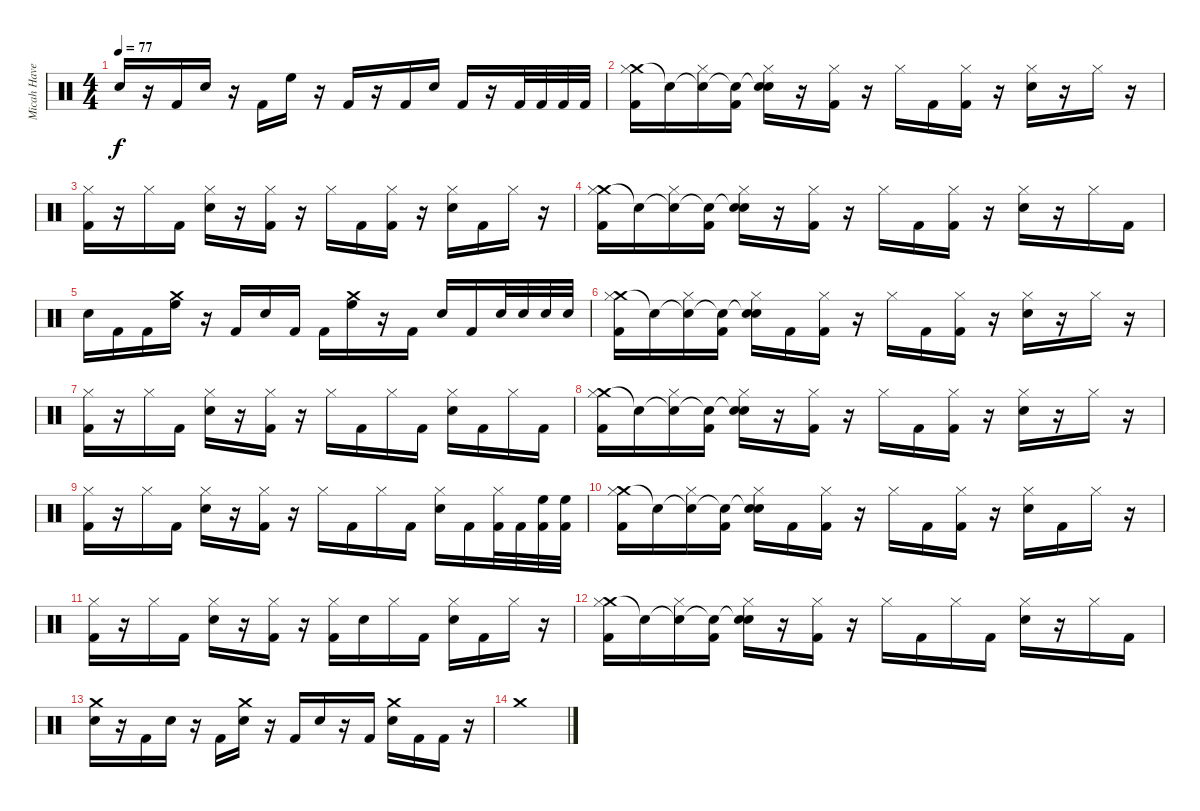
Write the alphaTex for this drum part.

\track ("Micah Havertape" "Micah Have") {instrument percussion}
\staff {score}
\articulation defaults
\ts (4 4)
\tempo 77
\clef neutral
\ks c "Electric Snare (hit)".16{dy f}
r.16 "Kick (hit) 2".16 "Electric Snare (hit)".16 r.16 "Kick (hit) 2".16 "High Floor Tom (hit)".16 r.16 "Kick (hit) 2".16 r.16 "Kick (hit) 2".16 "Electric Snare (hit)".16 "Kick (hit) 2".16 r.16 "Kick (hit) 2".32 "Kick (hit) 2".32 "Kick (hit) 2".32 "Kick (hit) 2".32 |
("Crash medium (hit)" "Hi-Hat (closed)" "Kick (hit) 2").16 "Snare (hit)"{t}.16 ("Snare (hit)"{t} "Hi-Hat (closed)").16 ("Snare (hit)"{t} "Kick (hit) 2").16 ("Snare (hit)"{t} "Hi-Hat (closed)" "Electric Snare (hit)").16 r.16 ("Hi-Hat (closed)" "Kick (hit) 2").16 r.16 "Hi-Hat (closed)".16 "Kick (hit) 2".16 ("Hi-Hat (closed)" "Kick (hit) 2").16 r.16 ("Hi-Hat (closed)" "Electric Snare (hit)").16 r.16 "Hi-Hat (closed)".16 r.16 |
("Hi-Hat (closed)" "Kick (hit) 2").16 r.16 "Hi-Hat (closed)".16 "Kick (hit) 2".16 ("Hi-Hat (closed)" "Electric Snare (hit)").16 r.16 ("Hi-Hat (closed)" "Kick (hit) 2").16 r.16 "Hi-Hat (closed)".16 "Kick (hit) 2".16 ("Hi-Hat (closed)" "Kick (hit) 2").16 r.16 ("Hi-Hat (closed)" "Electric Snare (hit)").16 "Kick (hit) 2".16 "Hi-Hat (closed)".16 r.16 |
("Crash medium (hit)" "Hi-Hat (closed)" "Kick (hit) 2").16 "Snare (hit)"{t}.16 ("Snare (hit)"{t} "Hi-Hat (closed)").16 ("Snare (hit)"{t} "Kick (hit) 2").16 ("Snare (hit)"{t} "Hi-Hat (closed)" "Electric Snare (hit)").16 r.16 ("Hi-Hat (closed)" "Kick (hit) 2").16 r.16 "Hi-Hat (closed)".16 "Kick (hit) 2".16 ("Hi-Hat (closed)" "Kick (hit) 2").16 r.16 ("Hi-Hat (closed)" "Electric Snare (hit)").16 r.16 "Hi-Hat (closed)".16 "Kick (hit) 2".16 |
"Electric Snare (hit)".16 "Kick (hit) 2".16 "Kick (hit) 2".16 ("Crash medium (hit)" "High Floor Tom (hit)").16 r.16 "Kick (hit) 2".16 "Electric Snare (hit)".16 "Kick (hit) 2".16 "Kick (hit) 2".16 ("Crash medium (hit)" "High Floor Tom (hit)").16 r.16 "Kick (hit) 2".16 "Electric Snare (hit)".16 "Kick (hit) 2".16 "Electric Snare (hit)".32 "Electric Snare (hit)".32 "Electric Snare (hit)".32 "Electric Snare (hit)".32 |
("Crash medium (hit)" "Hi-Hat (closed)" "Kick (hit) 2").16 "Snare (hit)"{t}.16 ("Snare (hit)"{t} "Hi-Hat (closed)").16 ("Snare (hit)"{t} "Kick (hit) 2").16 ("Snare (hit)"{t} "Hi-Hat (closed)" "Electric Snare (hit)").16 "Kick (hit) 2".16 ("Hi-Hat (closed)" "Kick (hit) 2").16 r.16 "Hi-Hat (closed)".16 "Kick (hit) 2".16 ("Hi-Hat (closed)" "Kick (hit) 2").16 r.16 ("Hi-Hat (closed)" "Electric Snare (hit)").16 r.16 "Hi-Hat (closed)".16 r.16 |
("Hi-Hat (closed)" "Kick (hit) 2").16 r.16 "Hi-Hat (closed)".16 "Kick (hit) 2".16 ("Hi-Hat (closed)" "Electric Snare (hit)").16 r.16 ("Hi-Hat (closed)" "Kick (hit) 2").16 r.16 "Hi-Hat (closed)".16 "Kick (hit) 2".16 "Hi-Hat (closed)".16 "Kick (hit) 2".16 ("Hi-Hat (closed)" "Electric Snare (hit)").16 "Kick (hit) 2".16 "Hi-Hat (closed)".16 "Kick (hit) 2".16 |
("Crash medium (hit)" "Hi-Hat (closed)" "Kick (hit) 2").16 "Snare (hit)"{t}.16 ("Snare (hit)"{t} "Hi-Hat (closed)").16 ("Snare (hit)"{t} "Kick (hit) 2").16 ("Snare (hit)"{t} "Hi-Hat (closed)" "Electric Snare (hit)").16 r.16 ("Hi-Hat (closed)" "Kick (hit) 2").16 r.16 "Hi-Hat (closed)".16 "Kick (hit) 2".16 ("Hi-Hat (closed)" "Kick (hit) 2").16 r.16 ("Hi-Hat (closed)" "Electric Snare (hit)").16 r.16 "Hi-Hat (closed)".16 r.16 |
("Hi-Hat (closed)" "Kick (hit) 2").16 r.16 "Hi-Hat (closed)".16 "Kick (hit) 2".16 ("Hi-Hat (closed)" "Electric Snare (hit)").16 r.16 ("Hi-Hat (closed)" "Kick (hit) 2").16 r.16 "Hi-Hat (closed)".16 "Kick (hit) 2".16 "Hi-Hat (closed)".16 "Kick (hit) 2".16 ("Hi-Hat (closed)" "Electric Snare (hit)").16 "Kick (hit) 2".16 ("Hi-Hat (closed)" "Kick (hit) 2").32 "Kick (hit) 2".32 ("High Floor Tom (hit)" "Kick (hit) 2").32 ("High Floor Tom (hit)" "Kick (hit) 2").32 |
("Crash medium (hit)" "Hi-Hat (closed)" "Kick (hit) 2").16 "Snare (hit)"{t}.16 ("Snare (hit)"{t} "Hi-Hat (closed)").16 ("Snare (hit)"{t} "Kick (hit) 2").16 ("Snare (hit)"{t} "Hi-Hat (closed)" "Electric Snare (hit)").16 "Kick (hit) 2".16 ("Hi-Hat (closed)" "Kick (hit) 2").16 r.16 "Hi-Hat (closed)".16 "Kick (hit) 2".16 ("Hi-Hat (closed)" "Kick (hit) 2").16 r.16 ("Hi-Hat (closed)" "Electric Snare (hit)").16 "Kick (hit) 2".16 "Hi-Hat (closed)".16 r.16 |
("Hi-Hat (closed)" "Kick (hit) 2").16 r.16 "Hi-Hat (closed)".16 "Kick (hit) 2".16 ("Hi-Hat (closed)" "Electric Snare (hit)").16 r.16 ("Hi-Hat (closed)" "Kick (hit) 2").16 r.16 ("Hi-Hat (closed)" "Kick (hit) 2").16 "Electric Snare (hit)".16 "Hi-Hat (closed)".16 "Kick (hit) 2".16 ("Hi-Hat (closed)" "Electric Snare (hit)").16 "Kick (hit) 2".16 "Hi-Hat (closed)".16 r.16 |
("Crash medium (hit)" "Hi-Hat (closed)" "Kick (hit) 2").16 "Snare (hit)"{t}.16 ("Snare (hit)"{t} "Hi-Hat (closed)").16 ("Snare (hit)"{t} "Kick (hit) 2").16 ("Snare (hit)"{t} "Hi-Hat (closed)" "Electric Snare (hit)").16 r.16 ("Hi-Hat (closed)" "Kick (hit) 2").16 r.16 "Hi-Hat (closed)".16 "Kick (hit) 2".16 "Hi-Hat (closed)".16 "Kick (hit) 2".16 ("Hi-Hat (closed)" "Electric Snare (hit)").16 r.16 "Hi-Hat (closed)".16 "Kick (hit) 2".16 |
("Crash medium (hit)" "Electric Snare (hit)").16 r.16 "Kick (hit) 2".16 "Electric Snare (hit)".16 r.16 "Kick (hit) 2".16 ("Crash medium (hit)" "Electric Snare (hit)").16 r.16 "Kick (hit) 2".16 "Electric Snare (hit)".16 r.16 "Kick (hit) 2".16 ("Crash medium (hit)" "Electric Snare (hit)").16 "Kick (hit) 2".16 "Kick (hit) 2".16 r.16 |
"Crash medium (hit)".1
